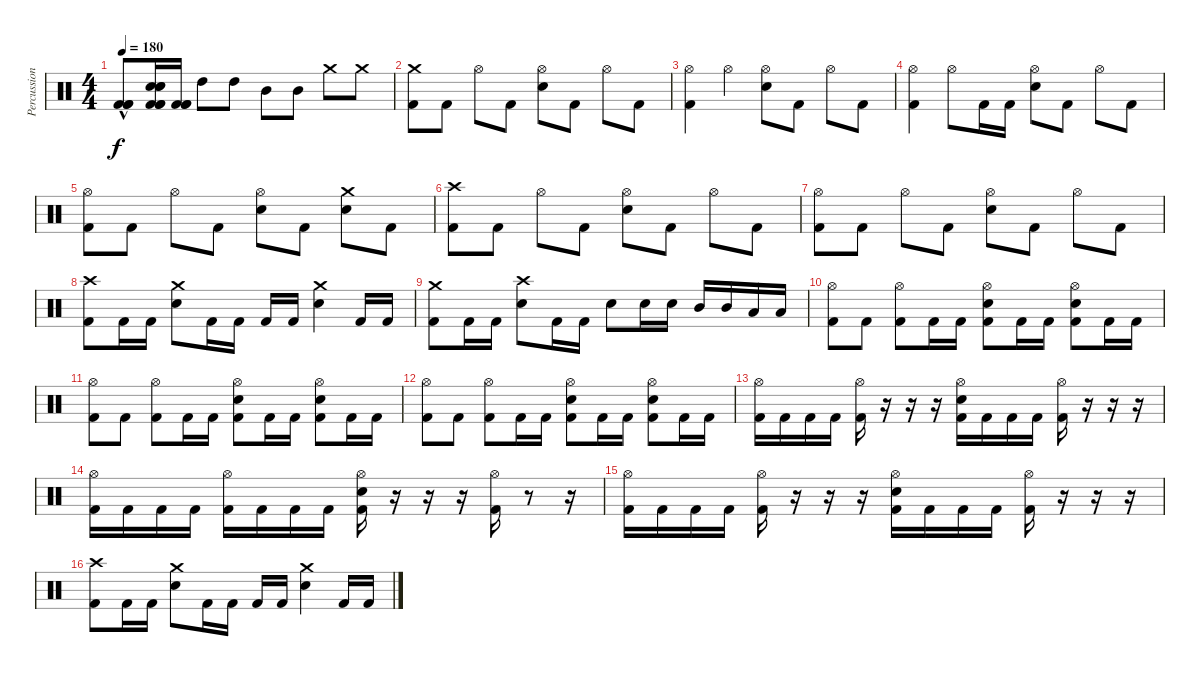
\track ("Percussion" "Percussion") {instrument percussion}
\staff {score}
\articulation defaults
\ts (4 4)
\tempo 180
\clef neutral
\ks c
("Kick (hit) 2"{hac} "Kick (hit) 2" "Kick (hit) 2"{hac}).8{dy f} ("Electric Snare (hit)" "Electric Snare (hit)" "Electric Snare (hit)" "Kick (hit) 2" "Kick (hit) 2" "Kick (hit) 2").16 ("Kick (hit) 2" "Kick (hit) 2" "Kick (hit) 2").16 "High Tom (hit)".8 "High Tom (hit)".8 "Mid Tom (hit)".8 "Mid Tom (hit)".8 "Crash medium (hit)".8 "Crash medium (hit)".8 |
("Kick (hit) 2" "Crash medium (hit)").8 "Kick (hit) 2".8 "Hi-Hat (open)".8 "Kick (hit) 2".8 ("Electric Snare (hit)" "Hi-Hat (open)").8 "Kick (hit) 2".8 "Hi-Hat (open)".8 "Kick (hit) 2".8 |
("Kick (hit) 2" "Hi-Hat (open)").4 "Hi-Hat (open)".4 ("Electric Snare (hit)" "Hi-Hat (open)").8 "Kick (hit) 2".8 "Hi-Hat (open)".8 "Kick (hit) 2".8 |
("Kick (hit) 2" "Hi-Hat (open)").4 "Hi-Hat (open)".8 "Kick (hit) 2".16 "Kick (hit) 2".16 ("Electric Snare (hit)" "Hi-Hat (open)").8 "Kick (hit) 2".8 "Hi-Hat (open)".8 "Kick (hit) 2".8 |
("Kick (hit) 2" "Hi-Hat (open)").8 "Kick (hit) 2".8 "Hi-Hat (open)".8 "Kick (hit) 2".8 ("Electric Snare (hit)" "Hi-Hat (open)").8 "Kick (hit) 2".8 ("Electric Snare (hit)" "Crash medium (hit)").8 "Kick (hit) 2".8 |
("Kick (hit) 2" "Crash high (hit)").8 "Kick (hit) 2".8 "Hi-Hat (open)".8 "Kick (hit) 2".8 ("Electric Snare (hit)" "Hi-Hat (open)").8 "Kick (hit) 2".8 "Hi-Hat (open)".8 "Kick (hit) 2".8 |
("Kick (hit) 2" "Hi-Hat (open)").8 "Kick (hit) 2".8 "Hi-Hat (open)".8 "Kick (hit) 2".8 ("Electric Snare (hit)" "Hi-Hat (open)").8 "Kick (hit) 2".8 "Hi-Hat (open)".8 "Kick (hit) 2".8 |
("Kick (hit) 2" "Crash high (hit)").8 "Kick (hit) 2".16 "Kick (hit) 2".16 ("Electric Snare (hit)" "Crash medium (hit)").8 "Kick (hit) 2".16 "Kick (hit) 2".16 "Kick (hit) 2".16 "Kick (hit) 2".16 ("Electric Snare (hit)" "Crash medium (hit)").4 "Kick (hit) 2".16 "Kick (hit) 2".16 |
("Kick (hit) 2" "Crash medium (hit)").8 "Kick (hit) 2".16 "Kick (hit) 2".16 ("Electric Snare (hit)" "Crash high (hit)").8 "Kick (hit) 2".16 "Kick (hit) 2".16 "Electric Snare (hit)".8 "Electric Snare (hit)".16 "Electric Snare (hit)".16 "Mid Tom (hit)".16 "Mid Tom (hit)".16 "Low Tom (hit)".16 "Low Tom (hit)".16 |
("Kick (hit) 2" "Hi-Hat (open)").8 "Kick (hit) 2".8 ("Kick (hit) 2" "Hi-Hat (open)").8 "Kick (hit) 2".16 "Kick (hit) 2".16 ("Kick (hit) 2" "Electric Snare (hit)" "Hi-Hat (open)").8 "Kick (hit) 2".16 "Kick (hit) 2".16 ("Kick (hit) 2" "Electric Snare (hit)" "Hi-Hat (open)").8 "Kick (hit) 2".16 "Kick (hit) 2".16 |
("Kick (hit) 2" "Hi-Hat (open)").8 "Kick (hit) 2".8 ("Kick (hit) 2" "Hi-Hat (open)").8 "Kick (hit) 2".16 "Kick (hit) 2".16 ("Kick (hit) 2" "Electric Snare (hit)" "Hi-Hat (open)").8 "Kick (hit) 2".16 "Kick (hit) 2".16 ("Kick (hit) 2" "Electric Snare (hit)" "Hi-Hat (open)").8 "Kick (hit) 2".16 "Kick (hit) 2".16 |
("Kick (hit) 2" "Hi-Hat (open)").8 "Kick (hit) 2".8 ("Kick (hit) 2" "Hi-Hat (open)").8 "Kick (hit) 2".16 "Kick (hit) 2".16 ("Kick (hit) 2" "Electric Snare (hit)" "Hi-Hat (open)").8 "Kick (hit) 2".16 "Kick (hit) 2".16 ("Kick (hit) 2" "Electric Snare (hit)" "Hi-Hat (open)").8 "Kick (hit) 2".16 "Kick (hit) 2".16 |
("Kick (hit) 2" "Hi-Hat (open)").16 "Kick (hit) 2".16 "Kick (hit) 2".16 "Kick (hit) 2".16 ("Kick (hit) 2" "Hi-Hat (open)").16 r.16 r.16 r.16 ("Kick (hit) 2" "Electric Snare (hit)" "Hi-Hat (open)").16 "Kick (hit) 2".16 "Kick (hit) 2".16 "Kick (hit) 2".16 ("Kick (hit) 2" "Hi-Hat (open)").16 r.16 r.16 r.16 |
("Kick (hit) 2" "Hi-Hat (open)").16 "Kick (hit) 2".16 "Kick (hit) 2".16 "Kick (hit) 2".16 ("Kick (hit) 2" "Hi-Hat (open)").16 "Kick (hit) 2".16 "Kick (hit) 2".16 "Kick (hit) 2".16 ("Kick (hit) 2" "Electric Snare (hit)" "Hi-Hat (open)").16 r.16 r.16 r.16 ("Kick (hit) 2" "Hi-Hat (open)").16 r.8 r.16 |
("Kick (hit) 2" "Hi-Hat (open)").16 "Kick (hit) 2".16 "Kick (hit) 2".16 "Kick (hit) 2".16 ("Kick (hit) 2" "Hi-Hat (open)").16 r.16 r.16 r.16 ("Kick (hit) 2" "Electric Snare (hit)" "Hi-Hat (open)").16 "Kick (hit) 2".16 "Kick (hit) 2".16 "Kick (hit) 2".16 ("Kick (hit) 2" "Hi-Hat (open)").16 r.16 r.16 r.16 |
("Kick (hit) 2" "Crash high (hit)").8 "Kick (hit) 2".16 "Kick (hit) 2".16 ("Electric Snare (hit)" "Crash medium (hit)").8 "Kick (hit) 2".16 "Kick (hit) 2".16 "Kick (hit) 2".16 "Kick (hit) 2".16 ("Electric Snare (hit)" "Crash medium (hit)").4 "Kick (hit) 2".16 "Kick (hit) 2".16
